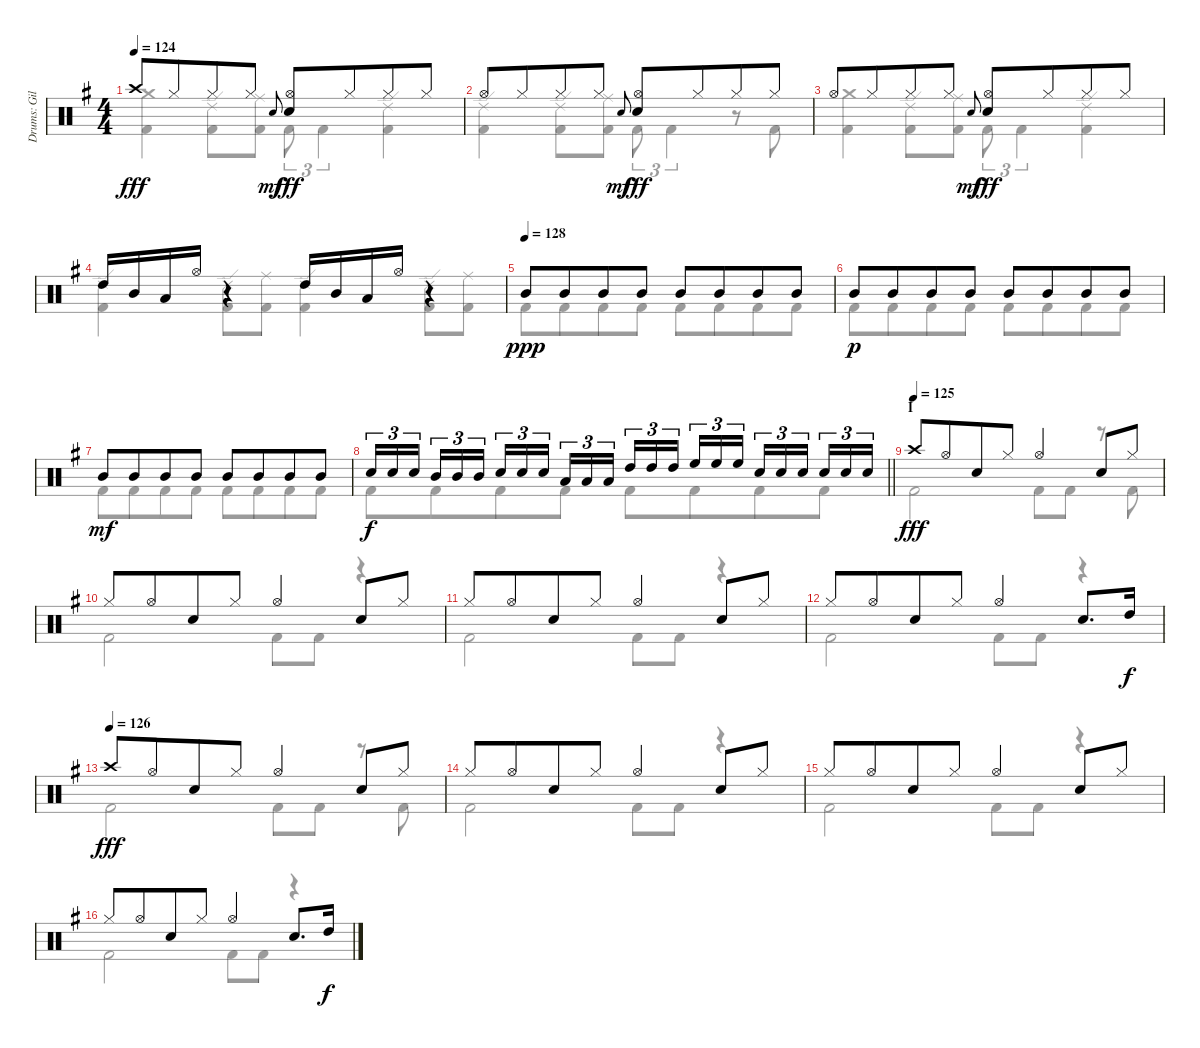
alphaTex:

\track ("Drums: Gil" "Drums: Gil") {instrument percussion}
\staff {score}
\articulation defaults
\voice
\ts (4 4)
\tempo 124
\clef neutral
\ks g "Crash high (hit)".8{dy fff} "Hi-Hat (closed)".8{beam merge} "Hi-Hat (closed)".8 "Hi-Hat (closed)".8 "Electric Snare (hit)".8{gr onbeat dy mf}
("Hi-Hat (open)" "Snare (hit) 2").8{dy fff} "Hi-Hat (closed)".8{beam merge} "Hi-Hat (closed)".8 "Hi-Hat (closed)".8 |
"Hi-Hat (open)".8 "Hi-Hat (closed)".8{beam merge} "Hi-Hat (closed)".8 "Hi-Hat (closed)".8 "Electric Snare (hit)".8{gr onbeat dy mf} ("Hi-Hat (open)" "Snare (hit) 2").8{dy fff} "Hi-Hat (closed)".8{beam merge} "Hi-Hat (closed)".8 "Hi-Hat (closed)".8 |
"Hi-Hat (open)".8 "Hi-Hat (closed)".8{beam merge} "Hi-Hat (closed)".8 "Hi-Hat (closed)".8 "Electric Snare (hit)".8{gr onbeat dy mf} ("Hi-Hat (open)" "Snare (hit) 2").8{dy fff} "Hi-Hat (closed)".8{beam merge} "Hi-Hat (closed)".8 "Hi-Hat (closed)".8 |
"High Tom (hit)".16 "Mid Tom (hit)".16 "Low Tom (hit)".16 "Hi-Hat (open)".16 r.4 "High Tom (hit)".16 "Mid Tom (hit)".16 "Low Tom (hit)".16 "Hi-Hat (open)".16 r.4 |
\tempo (128)
"Mid Tom (hit)".8{dy ppp} "Mid Tom (hit)".8{beam merge} "Mid Tom (hit)".8 "Mid Tom (hit)".8 "Mid Tom (hit)".8 "Mid Tom (hit)".8{beam merge} "Mid Tom (hit)".8 "Mid Tom (hit)".8 |
"Mid Tom (hit)".8{dy p} "Mid Tom (hit)".8{beam merge} "Mid Tom (hit)".8 "Mid Tom (hit)".8 "Mid Tom (hit)".8 "Mid Tom (hit)".8{beam merge} "Mid Tom (hit)".8 "Mid Tom (hit)".8 |
"Mid Tom (hit)".8{dy mf} "Mid Tom (hit)".8{beam merge} "Mid Tom (hit)".8 "Mid Tom (hit)".8 "Mid Tom (hit)".8 "Mid Tom (hit)".8{beam merge} "Mid Tom (hit)".8 "Mid Tom (hit)".8 |
\barLineRight lightlight "Snare (hit) 2".16{tu (3 2) dy f} "Snare (hit) 2".16{tu (3 2) beam merge} "Snare (hit) 2".16{tu (3 2) beam splitsecondary} "Mid Tom (hit)".16{tu (3 2)} "Mid Tom (hit)".16{tu (3 2)} "Mid Tom (hit)".16{tu (3 2)} "Snare (hit) 2".16{tu (3 2)} "Snare (hit) 2".16{tu (3 2) beam merge} "Snare (hit) 2".16{tu (3 2) beam splitsecondary} "Low Tom (hit)".16{tu (3 2)} "Low Tom (hit)".16{tu (3 2)} "Low Tom (hit)".16{tu (3 2)} "High Tom (hit)".16{tu (3 2)} "High Tom (hit)".16{tu (3 2)} "High Tom (hit)".16{tu (3 2) beam splitsecondary} "High Floor Tom (hit)".16{tu (3 2)} "High Floor Tom (hit)".16{tu (3 2)} "High Floor Tom (hit)".16{tu (3 2)} "Snare (hit) 2".16{tu (3 2)} "Snare (hit) 2".16{tu (3 2) beam merge} "Snare (hit) 2".16{tu (3 2) beam splitsecondary} "Snare (hit) 2".16{tu (3 2)} "Snare (hit) 2".16{tu (3 2) beam merge} "Snare (hit) 2".16{tu (3 2)}
|
\section ("" "I")
\tempo (125)
"Crash high (hit)".8{dy fff} "Hi-Hat (open)".8{beam merge} "Snare (hit) 2".8 "Hi-Hat (closed)".8 "Hi-Hat (open)".4 "Snare (hit) 2".8 "Hi-Hat (closed)".8 |
"Hi-Hat (closed)".8 "Hi-Hat (open)".8{beam merge} "Snare (hit) 2".8 "Hi-Hat (closed)".8 "Hi-Hat (open)".4 "Snare (hit) 2".8 "Hi-Hat (closed)".8 |
"Hi-Hat (closed)".8 "Hi-Hat (open)".8{beam merge} "Snare (hit) 2".8 "Hi-Hat (closed)".8 "Hi-Hat (open)".4 "Snare (hit) 2".8 "Hi-Hat (closed)".8 |
"Hi-Hat (closed)".8 "Hi-Hat (open)".8{beam merge} "Snare (hit) 2".8 "Hi-Hat (closed)".8 "Hi-Hat (open)".4 "Snare (hit) 2".8{d} "High Tom (hit)".16{dy f} |
\tempo (126)
"Crash high (hit)".8{dy fff} "Hi-Hat (open)".8{beam merge} "Snare (hit) 2".8 "Hi-Hat (closed)".8 "Hi-Hat (open)".4 "Snare (hit) 2".8 "Hi-Hat (closed)".8 |
"Hi-Hat (closed)".8 "Hi-Hat (open)".8{beam merge} "Snare (hit) 2".8 "Hi-Hat (closed)".8 "Hi-Hat (open)".4 "Snare (hit) 2".8 "Hi-Hat (closed)".8 |
"Hi-Hat (closed)".8 "Hi-Hat (open)".8{beam merge} "Snare (hit) 2".8 "Hi-Hat (closed)".8 "Hi-Hat (open)".4 "Snare (hit) 2".8 "Hi-Hat (closed)".8 |
"Hi-Hat (closed)".8 "Hi-Hat (open)".8{beam merge} "Snare (hit) 2".8 "Hi-Hat (closed)".8 "Hi-Hat (open)".4 "Snare (hit) 2".8{d} "High Tom (hit)".16{dy f}
\voice
\clef neutral
\ottava regular
\simile none
\ks g
("Crash medium (hit)" "Kick (hit) 2").4{dy fff} ("Ride (edge) 2" "Kick (hit) 2").8 ("Ride (middle)" "Kick (hit) 2").8 "Kick (hit) 2".8{tu (3 2)} "Kick (hit) 2".4{tu (3 2)} ("Ride (edge) 2" "Kick (hit) 2").4 |
("Ride (edge) 2" "Kick (hit) 2").4 ("Ride (edge) 2" "Kick (hit) 2").8 ("Ride (middle)" "Kick (hit) 2").8 "Kick (hit) 2".8{tu (3 2)} "Kick (hit) 2".4{tu (3 2)} r.8 "Kick (hit) 2".8 |
("Crash medium (hit)" "Kick (hit) 2").4 ("Ride (edge) 2" "Kick (hit) 2").8 ("Ride (middle)" "Kick (hit) 2").8 "Kick (hit) 2".8{tu (3 2)} "Kick (hit) 2".4{tu (3 2)} ("Ride (edge) 2" "Kick (hit) 2").4 |
("Ride (edge) 2" "Kick (hit) 2").4 ("Ride (edge) 2" "Kick (hit) 2").8 ("Ride (middle)" "Kick (hit) 2").8 ("Ride (edge) 2" "Kick (hit) 2").4 ("Ride (edge) 2" "Kick (hit) 2").8 ("Ride (middle)" "Kick (hit) 2").8 |
"Kick (hit) 2".8{dy ppp} "Kick (hit) 2".8{beam merge} "Kick (hit) 2".8 "Kick (hit) 2".8 "Kick (hit) 2".8 "Kick (hit) 2".8{beam merge} "Kick (hit) 2".8 "Kick (hit) 2".8 |
"Kick (hit) 2".8{dy p} "Kick (hit) 2".8{beam merge} "Kick (hit) 2".8 "Kick (hit) 2".8 "Kick (hit) 2".8 "Kick (hit) 2".8{beam merge} "Kick (hit) 2".8 "Kick (hit) 2".8 |
"Kick (hit) 2".8{dy mf} "Kick (hit) 2".8{beam merge} "Kick (hit) 2".8 "Kick (hit) 2".8 "Kick (hit) 2".8 "Kick (hit) 2".8{beam merge} "Kick (hit) 2".8 "Kick (hit) 2".8 |
\barLineRight lightlight "Kick (hit) 2".8{dy f} "Kick (hit) 2".8{beam merge} "Kick (hit) 2".8 "Kick (hit) 2".8 "Kick (hit) 2".8 "Kick (hit) 2".8{beam merge} "Kick (hit) 2".8 "Kick (hit) 2".8
|
"Kick (hit) 2".2{dy fff} "Kick (hit) 2".8 "Kick (hit) 2".8 r.8 "Kick (hit) 2".8 |
"Kick (hit) 2".2 "Kick (hit) 2".8 "Kick (hit) 2".8 r.4 |
"Kick (hit) 2".2 "Kick (hit) 2".8 "Kick (hit) 2".8 r.4 |
"Kick (hit) 2".2 "Kick (hit) 2".8 "Kick (hit) 2".8 r.4 |
"Kick (hit) 2".2 "Kick (hit) 2".8 "Kick (hit) 2".8 r.8 "Kick (hit) 2".8 |
"Kick (hit) 2".2 "Kick (hit) 2".8 "Kick (hit) 2".8 r.4 |
"Kick (hit) 2".2 "Kick (hit) 2".8 "Kick (hit) 2".8 r.4 |
"Kick (hit) 2".2 "Kick (hit) 2".8 "Kick (hit) 2".8 r.4
